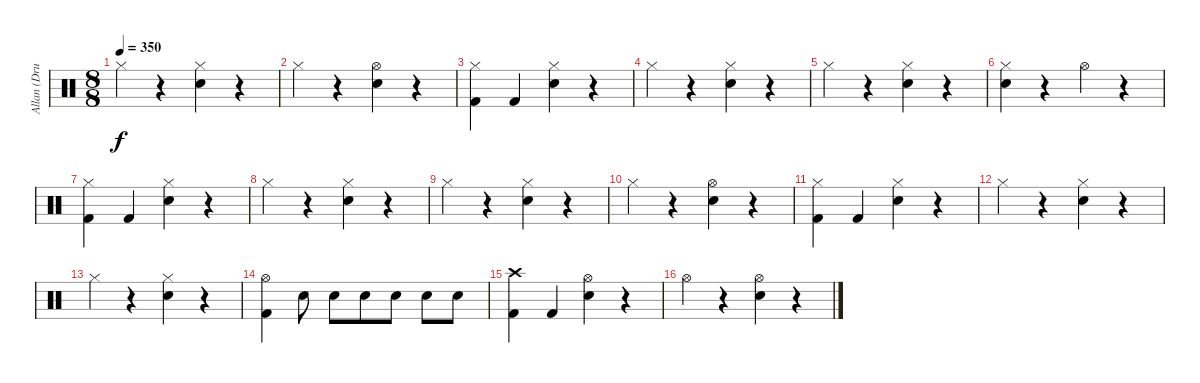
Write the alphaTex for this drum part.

\track ("Allan (Drums)" "Allan (Dru") {instrument percussion}
\staff {score}
\articulation defaults
\ts (8 8)
\tempo 350
\clef neutral
\ks c "Hi-Hat (closed)".4{dy f}
r.4 ("Hi-Hat (closed)" "Snare (hit) 2").4 r.4 |
"Hi-Hat (closed)".4 r.4 ("Hi-Hat (open)" "Snare (hit) 2").4 r.4 |
("Hi-Hat (closed)" "Kick (hit) 2").4 "Kick (hit) 2".4 ("Hi-Hat (closed)" "Snare (hit) 2").4 r.4 |
"Hi-Hat (closed)".4 r.4 ("Hi-Hat (closed)" "Snare (hit) 2").4 r.4 |
"Hi-Hat (closed)".4 r.4 ("Hi-Hat (closed)" "Snare (hit) 2").4 r.4 |
("Hi-Hat (closed)" "Snare (hit) 2").4 r.4 "Hi-Hat (open)".4 r.4 |
("Hi-Hat (closed)" "Kick (hit) 2").4 "Kick (hit) 2".4 ("Hi-Hat (closed)" "Snare (hit) 2").4 r.4 |
"Hi-Hat (closed)".4 r.4 ("Hi-Hat (closed)" "Snare (hit) 2").4 r.4 |
"Hi-Hat (closed)".4 r.4 ("Hi-Hat (closed)" "Snare (hit) 2").4 r.4 |
"Hi-Hat (closed)".4 r.4 ("Hi-Hat (open)" "Snare (hit) 2").4 r.4 |
("Hi-Hat (closed)" "Kick (hit) 2").4 "Kick (hit) 2".4 ("Hi-Hat (closed)" "Snare (hit) 2").4 r.4 |
"Hi-Hat (closed)".4 r.4 ("Hi-Hat (closed)" "Snare (hit) 2").4 r.4 |
"Hi-Hat (closed)".4 r.4 ("Hi-Hat (closed)" "Snare (hit) 2").4 r.4 |
("Hi-Hat (open)" "Kick (hit) 2").4 "Snare (hit) 2".8 "Snare (hit) 2".8 "Snare (hit) 2".8 "Snare (hit) 2".8 "Snare (hit) 2".8 "Snare (hit) 2".8 |
("Crash high (hit)" "Kick (hit) 2").4 "Kick (hit) 2".4 ("Hi-Hat (open)" "Snare (hit) 2").4 r.4 |
"Hi-Hat (open)".4 r.4 ("Hi-Hat (open)" "Snare (hit) 2").4 r.4
